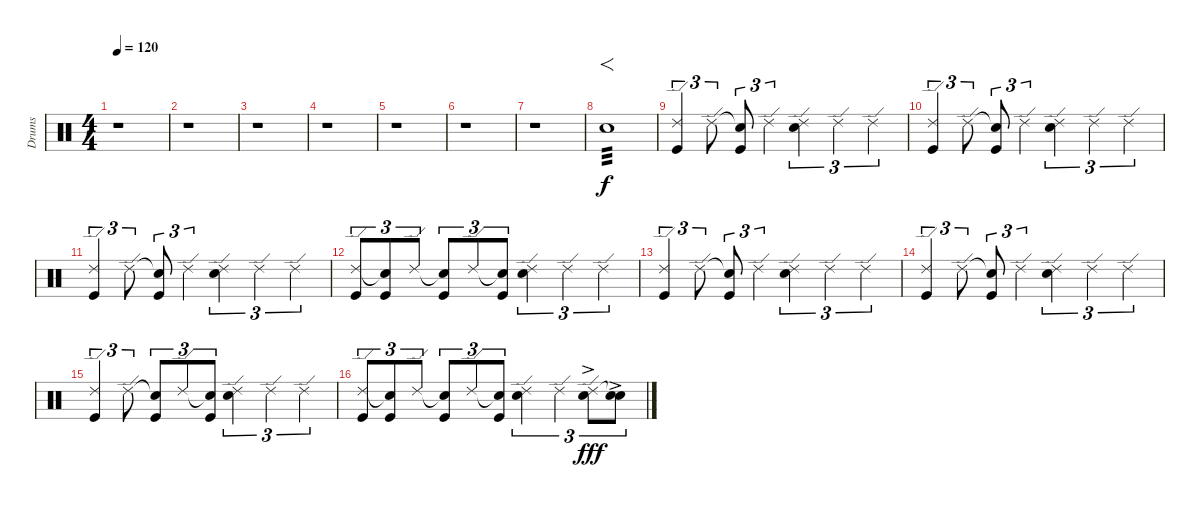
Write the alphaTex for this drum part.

\track ("Drums" "Drums") {instrument percussion}
\staff {score}
\articulation defaults
\ts (4 4)
\tempo 120
\clef neutral
\ks c
r.1{dy f} |
r.1 |
r.1 |
r.1 |
r.1 |
r.1 |
r.1 |
"Electric Snare (hit)".1{f tp 3 volume 7} |
("Ride (edge) 2" "Kick (hit)").4{tu (3 2) volume 11} "Ride (edge) 2".8{tu (3 2)} ("Snare (hit)"{t} "Kick (hit)").8{tu (3 2)} "Ride (edge) 2".4{tu (3 2)} ("Ride (edge) 2" "Electric Snare (hit)").4{tu (3 2)} "Ride (edge) 2".4{tu (3 2)} "Ride (edge) 2".4{tu (3 2)} |
("Ride (edge) 2" "Kick (hit)").4{tu (3 2)} "Ride (edge) 2".8{tu (3 2)} ("Snare (hit)"{t} "Kick (hit)").8{tu (3 2)} "Ride (edge) 2".4{tu (3 2)} ("Ride (edge) 2" "Electric Snare (hit)").4{tu (3 2)} "Ride (edge) 2".4{tu (3 2)} "Ride (edge) 2".4{tu (3 2)} |
("Ride (edge) 2" "Kick (hit)").4{tu (3 2)} "Ride (edge) 2".8{tu (3 2)} ("Snare (hit)"{t} "Kick (hit)").8{tu (3 2)} "Ride (edge) 2".4{tu (3 2)} ("Ride (edge) 2" "Electric Snare (hit)").4{tu (3 2)} "Ride (edge) 2".4{tu (3 2)} "Ride (edge) 2".4{tu (3 2)} |
("Ride (edge) 2" "Kick (hit)").8{tu (3 2)} ("Snare (hit)"{t} "Kick (hit)").8{tu (3 2)} "Ride (edge) 2".8{tu (3 2)} ("Snare (hit)"{t} "Kick (hit)").8{tu (3 2)} "Ride (edge) 2".8{tu (3 2)} ("Snare (hit)"{t} "Kick (hit)").8{tu (3 2)} ("Ride (edge) 2" "Electric Snare (hit)").4{tu (3 2)} "Ride (edge) 2".4{tu (3 2)} "Ride (edge) 2".4{tu (3 2)} |
("Ride (edge) 2" "Kick (hit)").4{tu (3 2) volume 11} "Ride (edge) 2".8{tu (3 2)} ("Snare (hit)"{t} "Kick (hit)").8{tu (3 2)} "Ride (edge) 2".4{tu (3 2)} ("Ride (edge) 2" "Electric Snare (hit)").4{tu (3 2)} "Ride (edge) 2".4{tu (3 2)} "Ride (edge) 2".4{tu (3 2)} |
("Ride (edge) 2" "Kick (hit)").4{tu (3 2)} "Ride (edge) 2".8{tu (3 2)} ("Snare (hit)"{t} "Kick (hit)").8{tu (3 2)} "Ride (edge) 2".4{tu (3 2)} ("Ride (edge) 2" "Electric Snare (hit)").4{tu (3 2)} "Ride (edge) 2".4{tu (3 2)} "Ride (edge) 2".4{tu (3 2)} |
("Ride (edge) 2" "Kick (hit)").4{tu (3 2)} "Ride (edge) 2".8{tu (3 2)} ("Snare (hit)"{t} "Kick (hit)").8{tu (3 2)} "Ride (edge) 2".8{tu (3 2)} ("Snare (hit)"{t} "Kick (hit)").8{tu (3 2)} ("Ride (edge) 2" "Electric Snare (hit)").4{tu (3 2)} "Ride (edge) 2".4{tu (3 2)} "Ride (edge) 2".4{tu (3 2)} |
("Ride (edge) 2" "Kick (hit)").8{tu (3 2)} ("Snare (hit)"{t} "Kick (hit)").8{tu (3 2)} "Ride (edge) 2".8{tu (3 2)} ("Snare (hit)"{t} "Kick (hit)").8{tu (3 2)} "Ride (edge) 2".8{tu (3 2)} ("Snare (hit)"{t} "Kick (hit)").8{tu (3 2)} ("Ride (edge) 2" "Electric Snare (hit)").4{tu (3 2)} "Ride (edge) 2".4{tu (3 2)} ("Ride (edge) 2" "Electric Snare (hit)"{ac}).8{tu (3 2) dy fff} ("Snare (hit)"{t} "Electric Snare (hit)"{ac}).8{tu (3 2)}
